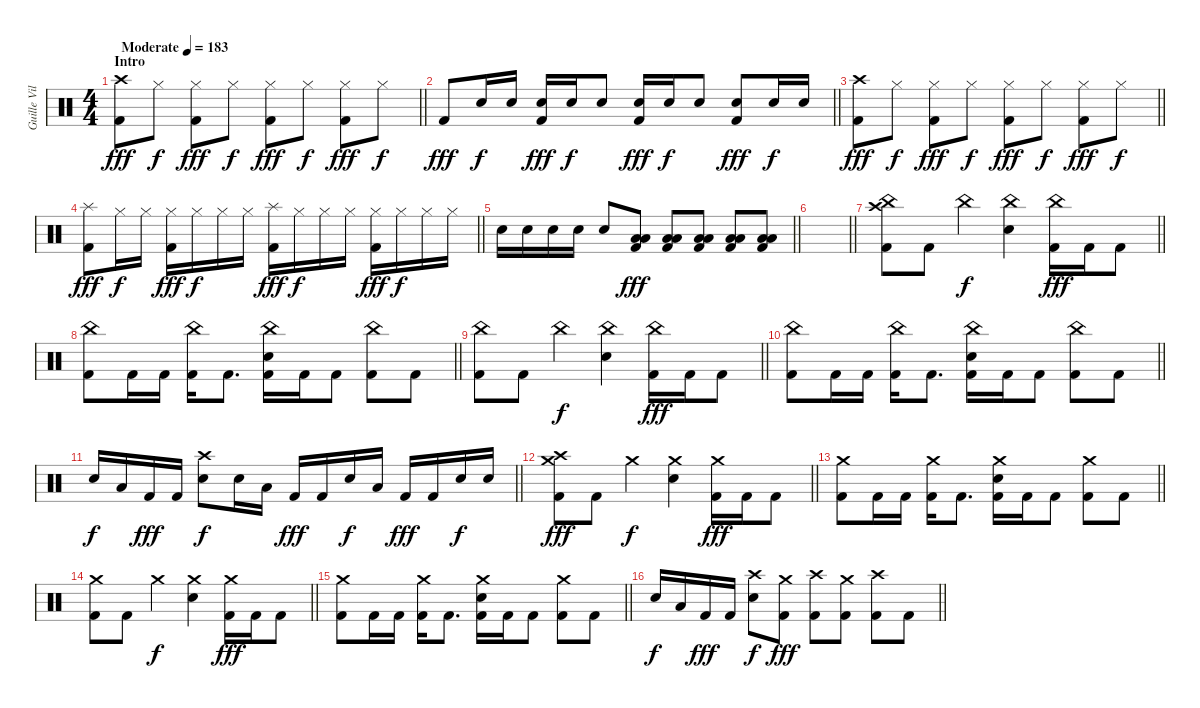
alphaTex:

\track ("Guille Vila" "Guille Vil") {instrument percussion}
\staff {score}
\articulation defaults
\ts (4 4)
\section ("" "Intro")
\tempo (183 "Moderate")
\clef neutral
\barLineRight lightlight
\ks c
("Crash high (hit)" "Kick (hit) 2").8{dy fff} "Hi-Hat (closed)".8{dy f} ("Hi-Hat (closed)" "Kick (hit) 2").8{dy fff} "Hi-Hat (closed)".8{dy f} ("Hi-Hat (closed)" "Kick (hit) 2").8{dy fff} "Hi-Hat (closed)".8{dy f} ("Hi-Hat (closed)" "Kick (hit) 2").8{dy fff} "Hi-Hat (closed)".8{dy f} |
\barLineRight lightlight "Kick (hit) 2".8{dy fff} "Snare (hit) 2".16{dy f} "Snare (hit) 2".16
("Snare (hit) 2" "Kick (hit) 2").16{dy fff} "Snare (hit) 2".16{dy f} "Snare (hit) 2".8 ("Snare (hit) 2" "Kick (hit) 2").16{dy fff} "Snare (hit) 2".16{dy f} "Snare (hit) 2".8 ("Snare (hit) 2" "Kick (hit) 2").8{dy fff} "Snare (hit) 2".16{dy f} "Snare (hit) 2".16 |
\barLineRight lightlight
("Crash high (hit)" "Kick (hit) 2").8{dy fff} "Hi-Hat (closed)".8{dy f} ("Hi-Hat (closed)" "Kick (hit) 2").8{dy fff} "Hi-Hat (closed)".8{dy f} ("Hi-Hat (closed)" "Kick (hit) 2").8{dy fff} "Hi-Hat (closed)".8{dy f} ("Hi-Hat (closed)" "Kick (hit) 2").8{dy fff} "Hi-Hat (closed)".8{dy f} |
\barLineRight lightlight
("Splash (hit)" "Kick (hit) 2").8{dy fff} "Hi-Hat (closed)".16{dy f} "Hi-Hat (closed)".16 ("Hi-Hat (closed)" "Kick (hit) 2").16{dy fff} "Hi-Hat (closed)".16{dy f} "Hi-Hat (closed)".16 "Hi-Hat (closed)".16 ("Splash (hit)" "Kick (hit) 2").16{dy fff} "Hi-Hat (closed)".16{dy f} "Hi-Hat (closed)".16 "Hi-Hat (closed)".16 ("Hi-Hat (closed)" "Kick (hit) 2").16{dy fff} "Hi-Hat (closed)".16{dy f} "Hi-Hat (closed)".16 "Hi-Hat (closed)".16 |
\barLineRight lightlight "Snare (hit) 2".16 "Snare (hit) 2".16 "Snare (hit) 2".16 "Snare (hit) 2".16 "Snare (hit) 2".8
("Low Floor Tom (hit)" "Low Tom (hit)" "Kick (hit) 2").8{dy fff} ("Low Floor Tom (hit)" "Low Tom (hit)" "Kick (hit) 2").8 ("Low Floor Tom (hit)" "Low Tom (hit)" "Kick (hit) 2").8 ("Low Floor Tom (hit)" "Low Tom (hit)" "Kick (hit) 2").8 ("Low Floor Tom (hit)" "Low Tom (hit)" "Kick (hit) 2").8 |
\barLineRight lightlight
|
\barLineRight lightlight
("China (hit)" "Crash high (hit)" "Kick (hit) 2").8 "Kick (hit) 2".8 "China (hit)".4{dy f} ("China (hit)" "Snare (hit) 2").4 ("China (hit)" "Kick (hit) 2").16{dy fff} "Kick (hit) 2".16 "Kick (hit) 2".8 |
\barLineRight lightlight
("China (hit)" "Kick (hit) 2").8 "Kick (hit) 2".16 "Kick (hit) 2".16 ("China (hit)" "Kick (hit) 2").16 "Kick (hit) 2".8{d} ("China (hit)" "Snare (hit) 2" "Kick (hit) 2").16 "Kick (hit) 2".16 "Kick (hit) 2".8 ("China (hit)" "Kick (hit) 2").8 "Kick (hit) 2".8 |
\barLineRight lightlight
("China (hit)" "Kick (hit) 2").8 "Kick (hit) 2".8 "China (hit)".4{dy f} ("China (hit)" "Snare (hit) 2").4 ("China (hit)" "Kick (hit) 2").16{dy fff} "Kick (hit) 2".16 "Kick (hit) 2".8 |
\barLineRight lightlight
("China (hit)" "Kick (hit) 2").8 "Kick (hit) 2".16 "Kick (hit) 2".16 ("China (hit)" "Kick (hit) 2").16 "Kick (hit) 2".8{d} ("China (hit)" "Snare (hit) 2" "Kick (hit) 2").16 "Kick (hit) 2".16 "Kick (hit) 2".8 ("China (hit)" "Kick (hit) 2").8 "Kick (hit) 2".8 |
\barLineRight lightlight "Snare (hit) 2".16{dy f} "Low Tom (hit)".16 "Kick (hit) 2".16{dy fff} "Kick (hit) 2".16
("Crash high (hit)" "Snare (hit) 2").8{dy f} "Snare (hit) 2".16 "Low Tom (hit)".16 "Kick (hit) 2".16{dy fff} "Kick (hit) 2".16 "Snare (hit) 2".16{dy f} "Low Tom (hit)".16 "Kick (hit) 2".16{dy fff} "Kick (hit) 2".16 "Snare (hit) 2".16{dy f} "Snare (hit) 2".16 |
\barLineRight lightlight
("Crash medium (hit)" "Crash high (hit)" "Kick (hit) 2").8{dy fff} "Kick (hit) 2".8 "Crash medium (hit)".4{dy f} ("Crash medium (hit)" "Snare (hit) 2").4 ("Crash medium (hit)" "Kick (hit) 2").16{dy fff} "Kick (hit) 2".16 "Kick (hit) 2".8 |
\barLineRight lightlight
("Crash medium (hit)" "Kick (hit) 2").8 "Kick (hit) 2".16 "Kick (hit) 2".16 ("Crash medium (hit)" "Kick (hit) 2").16 "Kick (hit) 2".8{d} ("Crash medium (hit)" "Snare (hit) 2" "Kick (hit) 2").16 "Kick (hit) 2".16 "Kick (hit) 2".8 ("Crash medium (hit)" "Kick (hit) 2").8 "Kick (hit) 2".8 |
\barLineRight lightlight
("Crash medium (hit)" "Kick (hit) 2").8 "Kick (hit) 2".8 "Crash medium (hit)".4{dy f} ("Crash medium (hit)" "Snare (hit) 2").4 ("Crash medium (hit)" "Kick (hit) 2").16{dy fff} "Kick (hit) 2".16 "Kick (hit) 2".8 |
\barLineRight lightlight
("Crash medium (hit)" "Kick (hit) 2").8 "Kick (hit) 2".16 "Kick (hit) 2".16 ("Crash medium (hit)" "Kick (hit) 2").16 "Kick (hit) 2".8{d} ("Crash medium (hit)" "Snare (hit) 2" "Kick (hit) 2").16 "Kick (hit) 2".16 "Kick (hit) 2".8 ("Crash medium (hit)" "Kick (hit) 2").8 "Kick (hit) 2".8 |
\barLineRight lightlight "Snare (hit) 2".16{dy f} "Low Tom (hit)".16 "Kick (hit) 2".16{dy fff} "Kick (hit) 2".16
("Crash high (hit)" "Snare (hit) 2").8{dy f} ("Crash medium (hit)" "Kick (hit) 2").8{dy fff} ("Crash high (hit)" "Kick (hit) 2").8 ("Crash medium (hit)" "Kick (hit) 2").8 ("Crash high (hit)" "Kick (hit) 2").8 "Kick (hit) 2".8
